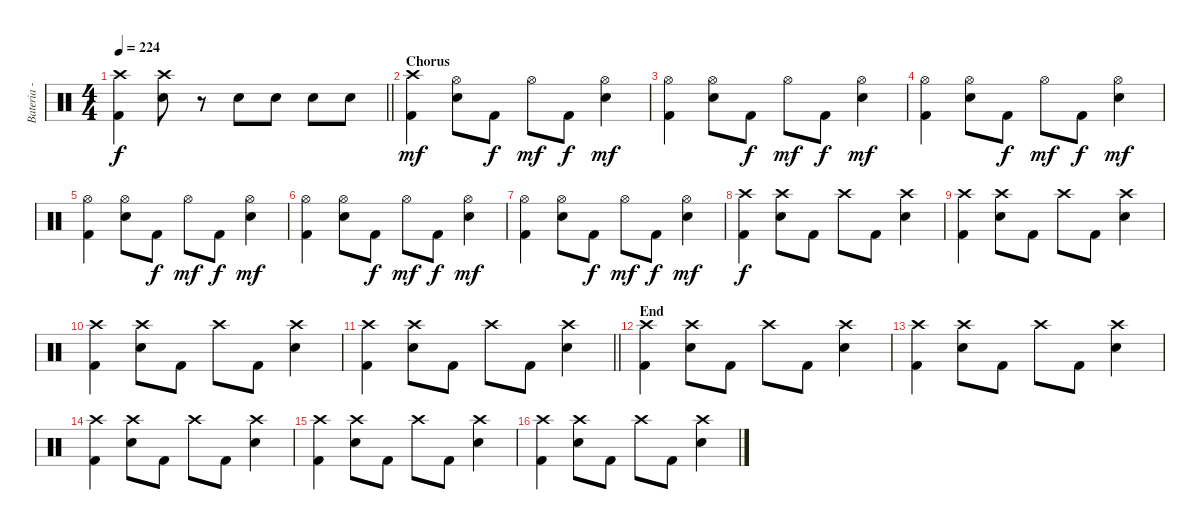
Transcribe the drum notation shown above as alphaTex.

\track ("Bateria - Larzon" "Bateria - ") {instrument percussion}
\staff {score}
\articulation defaults
\ts (4 4)
\tempo 224
\clef neutral
\barLineRight lightlight
\ks c
("Kick (hit) 2" "Crash high (hit)").4{dy f} ("Electric Snare (hit)" "Crash high (hit)").8 r.8 "Electric Snare (hit)".8 "Electric Snare (hit)".8 "Electric Snare (hit)".8 "Electric Snare (hit)".8 |
\section ("" "Chorus")
("Kick (hit) 2" "Crash high (hit)").4{dy mf} ("Electric Snare (hit)" "Hi-Hat (open)").8 "Kick (hit) 2".8{dy f} "Hi-Hat (open)".8{dy mf} "Kick (hit) 2".8{dy f} ("Electric Snare (hit)" "Hi-Hat (open)").4{dy mf} |
("Kick (hit) 2" "Hi-Hat (open)").4 ("Electric Snare (hit)" "Hi-Hat (open)").8 "Kick (hit) 2".8{dy f} "Hi-Hat (open)".8{dy mf} "Kick (hit) 2".8{dy f} ("Electric Snare (hit)" "Hi-Hat (open)").4{dy mf} |
("Kick (hit) 2" "Hi-Hat (open)").4 ("Electric Snare (hit)" "Hi-Hat (open)").8 "Kick (hit) 2".8{dy f} "Hi-Hat (open)".8{dy mf} "Kick (hit) 2".8{dy f} ("Electric Snare (hit)" "Hi-Hat (open)").4{dy mf} |
("Kick (hit) 2" "Hi-Hat (open)").4 ("Electric Snare (hit)" "Hi-Hat (open)").8 "Kick (hit) 2".8{dy f} "Hi-Hat (open)".8{dy mf} "Kick (hit) 2".8{dy f} ("Electric Snare (hit)" "Hi-Hat (open)").4{dy mf} |
("Kick (hit) 2" "Hi-Hat (open)").4 ("Electric Snare (hit)" "Hi-Hat (open)").8 "Kick (hit) 2".8{dy f} "Hi-Hat (open)".8{dy mf} "Kick (hit) 2".8{dy f} ("Electric Snare (hit)" "Hi-Hat (open)").4{dy mf} |
("Kick (hit) 2" "Hi-Hat (open)").4 ("Electric Snare (hit)" "Hi-Hat (open)").8 "Kick (hit) 2".8{dy f} "Hi-Hat (open)".8{dy mf} "Kick (hit) 2".8{dy f} ("Electric Snare (hit)" "Hi-Hat (open)").4{dy mf} |
("Kick (hit) 2" "Crash high (hit)").4{dy f} ("Electric Snare (hit)" "Crash high (hit)").8 "Kick (hit) 2".8 "Crash high (hit)".8 "Kick (hit) 2".8 ("Electric Snare (hit)" "Crash high (hit)").4 |
("Kick (hit) 2" "Crash high (hit)").4 ("Electric Snare (hit)" "Crash high (hit)").8 "Kick (hit) 2".8 "Crash high (hit)".8 "Kick (hit) 2".8 ("Electric Snare (hit)" "Crash high (hit)").4 |
("Kick (hit) 2" "Crash high (hit)").4 ("Electric Snare (hit)" "Crash high (hit)").8 "Kick (hit) 2".8 "Crash high (hit)".8 "Kick (hit) 2".8 ("Electric Snare (hit)" "Crash high (hit)").4 |
\barLineRight lightlight
("Kick (hit) 2" "Crash high (hit)").4 ("Electric Snare (hit)" "Crash high (hit)").8 "Kick (hit) 2".8 "Crash high (hit)".8 "Kick (hit) 2".8 ("Electric Snare (hit)" "Crash high (hit)").4 |
\section ("" "End")
("Kick (hit) 2" "Crash high (hit)").4 ("Electric Snare (hit)" "Crash high (hit)").8 "Kick (hit) 2".8 "Crash high (hit)".8 "Kick (hit) 2".8 ("Electric Snare (hit)" "Crash high (hit)").4 |
("Kick (hit) 2" "Crash high (hit)").4 ("Electric Snare (hit)" "Crash high (hit)").8 "Kick (hit) 2".8 "Crash high (hit)".8 "Kick (hit) 2".8 ("Electric Snare (hit)" "Crash high (hit)").4 |
("Kick (hit) 2" "Crash high (hit)").4 ("Electric Snare (hit)" "Crash high (hit)").8 "Kick (hit) 2".8 "Crash high (hit)".8 "Kick (hit) 2".8 ("Electric Snare (hit)" "Crash high (hit)").4 |
("Kick (hit) 2" "Crash high (hit)").4 ("Electric Snare (hit)" "Crash high (hit)").8 "Kick (hit) 2".8 "Crash high (hit)".8 "Kick (hit) 2".8 ("Electric Snare (hit)" "Crash high (hit)").4 |
("Kick (hit) 2" "Crash high (hit)").4 ("Electric Snare (hit)" "Crash high (hit)").8 "Kick (hit) 2".8 "Crash high (hit)".8 "Kick (hit) 2".8 ("Electric Snare (hit)" "Crash high (hit)").4
